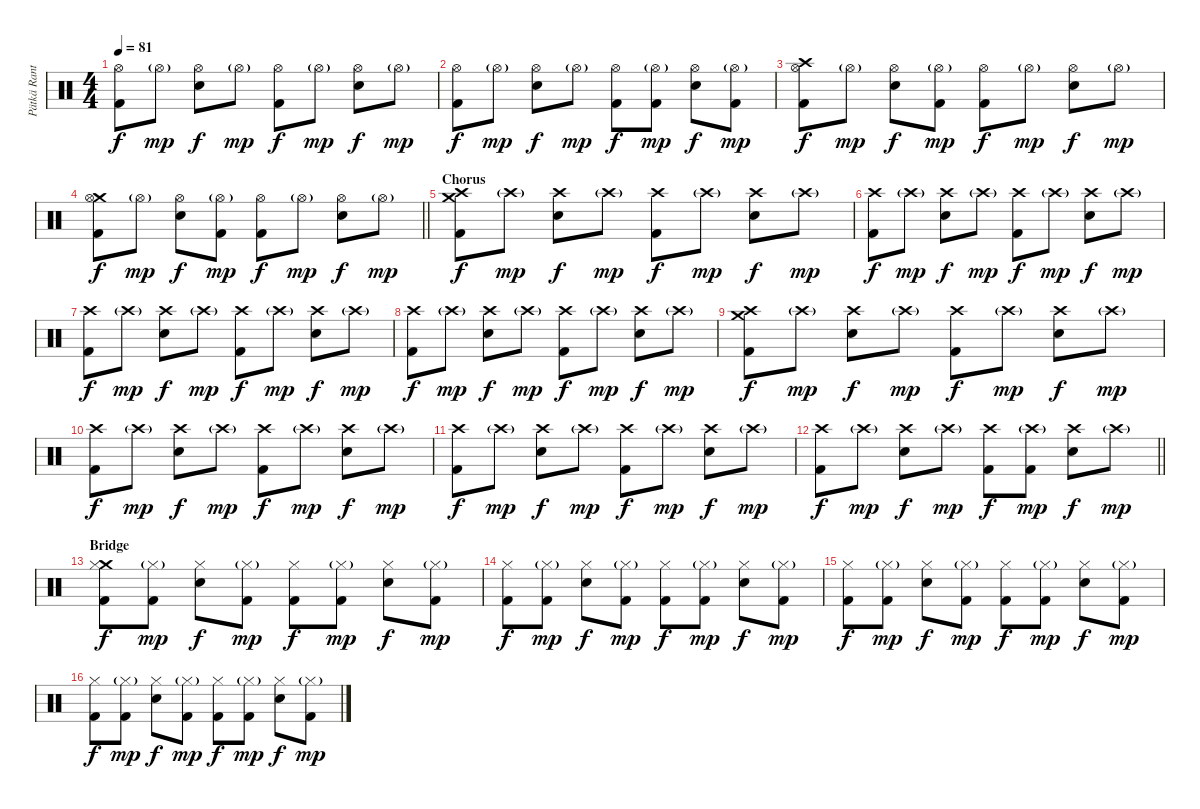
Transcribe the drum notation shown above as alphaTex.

\track ("Pätkä Rantala (Drums)" "Pätkä Rant") {instrument percussion}
\staff {score}
\articulation defaults
\ts (4 4)
\tempo 81
\clef neutral
\ks c
("Hi-Hat (open)" "Kick (hit) 2").8{dy f} "Hi-Hat (open)"{g}.8{dy mp} ("Hi-Hat (open)" "Snare (hit) 2").8{dy f} "Hi-Hat (open)"{g}.8{dy mp} ("Hi-Hat (open)" "Kick (hit) 2").8{dy f} "Hi-Hat (open)"{g}.8{dy mp} ("Hi-Hat (open)" "Snare (hit) 2").8{dy f} "Hi-Hat (open)"{g}.8{dy mp} |
("Hi-Hat (open)" "Kick (hit) 2").8{dy f} "Hi-Hat (open)"{g}.8{dy mp} ("Hi-Hat (open)" "Snare (hit) 2").8{dy f} "Hi-Hat (open)"{g}.8{dy mp} ("Hi-Hat (open)" "Kick (hit) 2").8{dy f} ("Hi-Hat (open)"{g} "Kick (hit) 2").8{dy mp} ("Hi-Hat (open)" "Snare (hit) 2").8{dy f} ("Hi-Hat (open)"{g} "Kick (hit) 2").8{dy mp} |
("Crash high (hit)" "Hi-Hat (open)" "Kick (hit) 2").8{dy f} "Hi-Hat (open)"{g}.8{dy mp} ("Hi-Hat (open)" "Snare (hit) 2").8{dy f} ("Hi-Hat (open)"{g} "Kick (hit) 2").8{dy mp} ("Hi-Hat (open)" "Kick (hit) 2").8{dy f} "Hi-Hat (open)"{g}.8{dy mp} ("Hi-Hat (open)" "Snare (hit) 2").8{dy f} "Hi-Hat (open)"{g}.8{dy mp} |
\barLineRight lightlight
("Crash medium (hit)" "Hi-Hat (open)" "Kick (hit) 2").8{dy f} "Hi-Hat (open)"{g}.8{dy mp} ("Hi-Hat (open)" "Snare (hit) 2").8{dy f} ("Hi-Hat (open)"{g} "Kick (hit) 2").8{dy mp} ("Hi-Hat (open)" "Kick (hit) 2").8{dy f} "Hi-Hat (open)"{g}.8{dy mp} ("Hi-Hat (open)" "Snare (hit) 2").8{dy f} "Hi-Hat (open)"{g}.8{dy mp} |
\section ("" "Chorus")
("Crash medium (hit)" "Crash high (hit)" "Kick (hit) 2").8{dy f} "Crash high (hit)"{g}.8{dy mp} ("Crash high (hit)" "Snare (hit) 2").8{dy f} "Crash high (hit)"{g}.8{dy mp} ("Crash high (hit)" "Kick (hit) 2").8{dy f} "Crash high (hit)"{g}.8{dy mp} ("Crash high (hit)" "Snare (hit) 2").8{dy f} "Crash high (hit)"{g}.8{dy mp} |
("Crash high (hit)" "Kick (hit) 2").8{dy f} "Crash high (hit)"{g}.8{dy mp} ("Crash high (hit)" "Snare (hit) 2").8{dy f} "Crash high (hit)"{g}.8{dy mp} ("Crash high (hit)" "Kick (hit) 2").8{dy f} "Crash high (hit)"{g}.8{dy mp} ("Crash high (hit)" "Snare (hit) 2").8{dy f} "Crash high (hit)"{g}.8{dy mp} |
("Crash high (hit)" "Kick (hit) 2").8{dy f} "Crash high (hit)"{g}.8{dy mp} ("Crash high (hit)" "Snare (hit) 2").8{dy f} "Crash high (hit)"{g}.8{dy mp} ("Crash high (hit)" "Kick (hit) 2").8{dy f} "Crash high (hit)"{g}.8{dy mp} ("Crash high (hit)" "Snare (hit) 2").8{dy f} "Crash high (hit)"{g}.8{dy mp} |
("Crash high (hit)" "Kick (hit) 2").8{dy f} "Crash high (hit)"{g}.8{dy mp} ("Crash high (hit)" "Snare (hit) 2").8{dy f} "Crash high (hit)"{g}.8{dy mp} ("Crash high (hit)" "Kick (hit) 2").8{dy f} "Crash high (hit)"{g}.8{dy mp} ("Crash high (hit)" "Snare (hit) 2").8{dy f} "Crash high (hit)"{g}.8{dy mp} |
("Crash medium (hit)" "Crash high (hit)" "Kick (hit) 2").8{dy f} "Crash high (hit)"{g}.8{dy mp} ("Crash high (hit)" "Snare (hit) 2").8{dy f} "Crash high (hit)"{g}.8{dy mp} ("Crash high (hit)" "Kick (hit) 2").8{dy f} "Crash high (hit)"{g}.8{dy mp} ("Crash high (hit)" "Snare (hit) 2").8{dy f} "Crash high (hit)"{g}.8{dy mp} |
("Crash high (hit)" "Kick (hit) 2").8{dy f} "Crash high (hit)"{g}.8{dy mp} ("Crash high (hit)" "Snare (hit) 2").8{dy f} "Crash high (hit)"{g}.8{dy mp} ("Crash high (hit)" "Kick (hit) 2").8{dy f} "Crash high (hit)"{g}.8{dy mp} ("Crash high (hit)" "Snare (hit) 2").8{dy f} "Crash high (hit)"{g}.8{dy mp} |
("Crash high (hit)" "Kick (hit) 2").8{dy f} "Crash high (hit)"{g}.8{dy mp} ("Crash high (hit)" "Snare (hit) 2").8{dy f} "Crash high (hit)"{g}.8{dy mp} ("Crash high (hit)" "Kick (hit) 2").8{dy f} "Crash high (hit)"{g}.8{dy mp} ("Crash high (hit)" "Snare (hit) 2").8{dy f} "Crash high (hit)"{g}.8{dy mp} |
\barLineRight lightlight
("Crash high (hit)" "Kick (hit) 2").8{dy f} "Crash high (hit)"{g}.8{dy mp} ("Crash high (hit)" "Snare (hit) 2").8{dy f} "Crash high (hit)"{g}.8{dy mp} ("Crash high (hit)" "Kick (hit) 2").8{dy f} ("Crash high (hit)"{g} "Kick (hit) 2").8{dy mp} ("Crash high (hit)" "Snare (hit) 2").8{dy f} "Crash high (hit)"{g}.8{dy mp} |
\section ("" "Bridge")
("Crash medium (hit)" "Hi-Hat (closed)" "Kick (hit) 2").8{dy f} ("Hi-Hat (closed)"{g} "Kick (hit) 2").8{dy mp} ("Hi-Hat (closed)" "Snare (hit) 2").8{dy f} ("Hi-Hat (closed)"{g} "Kick (hit) 2").8{dy mp} ("Hi-Hat (closed)" "Kick (hit) 2").8{dy f} ("Hi-Hat (closed)"{g} "Kick (hit) 2").8{dy mp} ("Hi-Hat (closed)" "Snare (hit) 2").8{dy f} ("Hi-Hat (closed)"{g} "Kick (hit) 2").8{dy mp} |
("Hi-Hat (closed)" "Kick (hit) 2").8{dy f} ("Hi-Hat (closed)"{g} "Kick (hit) 2").8{dy mp} ("Hi-Hat (closed)" "Snare (hit) 2").8{dy f} ("Hi-Hat (closed)"{g} "Kick (hit) 2").8{dy mp} ("Hi-Hat (closed)" "Kick (hit) 2").8{dy f} ("Hi-Hat (closed)"{g} "Kick (hit) 2").8{dy mp} ("Hi-Hat (closed)" "Snare (hit) 2").8{dy f} ("Hi-Hat (closed)"{g} "Kick (hit) 2").8{dy mp} |
("Hi-Hat (closed)" "Kick (hit) 2").8{dy f} ("Hi-Hat (closed)"{g} "Kick (hit) 2").8{dy mp} ("Hi-Hat (closed)" "Snare (hit) 2").8{dy f} ("Hi-Hat (closed)"{g} "Kick (hit) 2").8{dy mp} ("Hi-Hat (closed)" "Kick (hit) 2").8{dy f} ("Hi-Hat (closed)"{g} "Kick (hit) 2").8{dy mp} ("Hi-Hat (closed)" "Snare (hit) 2").8{dy f} ("Hi-Hat (closed)"{g} "Kick (hit) 2").8{dy mp} |
("Hi-Hat (closed)" "Kick (hit) 2").8{dy f} ("Hi-Hat (closed)"{g} "Kick (hit) 2").8{dy mp} ("Hi-Hat (closed)" "Snare (hit) 2").8{dy f} ("Hi-Hat (closed)"{g} "Kick (hit) 2").8{dy mp} ("Hi-Hat (closed)" "Kick (hit) 2").8{dy f} ("Hi-Hat (closed)"{g} "Kick (hit) 2").8{dy mp} ("Hi-Hat (closed)" "Snare (hit) 2").8{dy f} ("Hi-Hat (closed)"{g} "Kick (hit) 2").8{dy mp}
